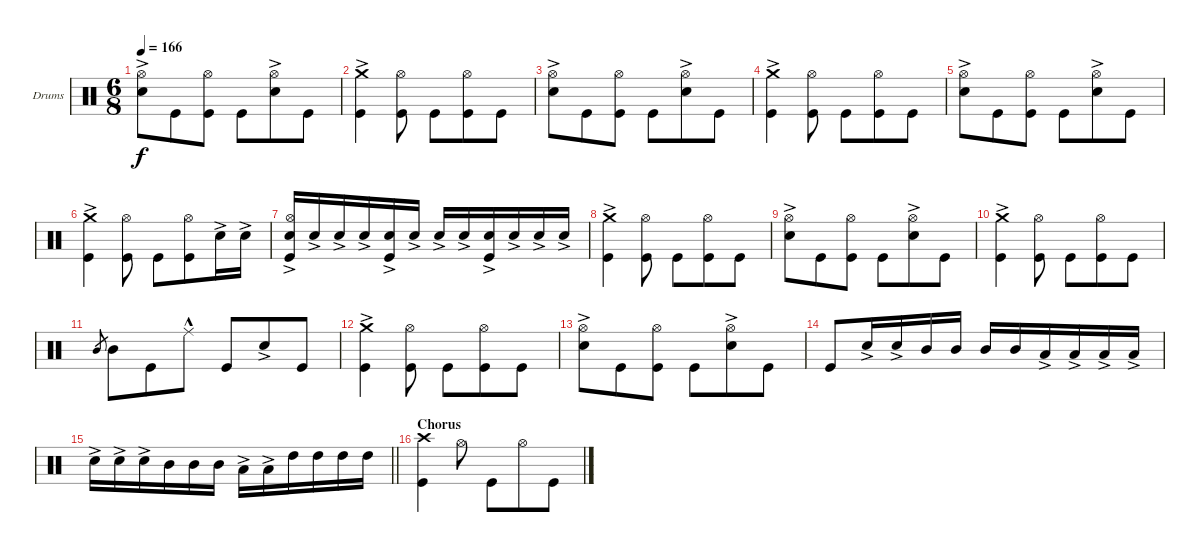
\bracketExtendMode groupsimilarinstruments
\firstSystemTrackNameOrientation horizontal
\otherSystemsTrackNameOrientation horizontal
\track ("Drumkit" "Drums") {instrument percussion}
\staff {score}
\articulation defaults
\ts (6 8)
\tempo 166
\clef neutral
\ks c
("Snare (hit) 2"{ac} "Hi-Hat (open)").8{dy f} "Kick (hit)".8 ("Kick (hit)" "Hi-Hat (open)").8 "Kick (hit)".8 ("Snare (hit) 2"{ac} "Hi-Hat (open)").8 "Kick (hit)".8 |
("Crash medium (hit)"{ac} "Kick (hit)").4 ("Kick (hit)" "Hi-Hat (open)").8 "Kick (hit)".8 ("Kick (hit)" "Hi-Hat (open)").8 "Kick (hit)".8 |
("Snare (hit) 2"{ac} "Hi-Hat (open)").8 "Kick (hit)".8 ("Kick (hit)" "Hi-Hat (open)").8 "Kick (hit)".8 ("Snare (hit) 2"{ac} "Hi-Hat (open)").8 "Kick (hit)".8 |
("Crash medium (hit)"{ac} "Kick (hit)").4 ("Kick (hit)" "Hi-Hat (open)").8 "Kick (hit)".8 ("Kick (hit)" "Hi-Hat (open)").8 "Kick (hit)".8 |
("Snare (hit) 2"{ac} "Hi-Hat (open)").8 "Kick (hit)".8 ("Kick (hit)" "Hi-Hat (open)").8 "Kick (hit)".8 ("Snare (hit) 2"{ac} "Hi-Hat (open)").8 "Kick (hit)".8 |
("Crash medium (hit)"{ac} "Kick (hit)").4 ("Kick (hit)" "Hi-Hat (open)").8 "Kick (hit)".8 ("Kick (hit)" "Hi-Hat (open)").8 "Snare (hit) 2"{ac}.16 "Snare (hit) 2"{ac}.16 |
("Snare (hit) 2"{ac} "Kick (hit)" "Hi-Hat (open)").16 "Snare (hit) 2"{ac}.16 "Snare (hit) 2"{ac}.16 "Snare (hit) 2"{ac}.16 ("Snare (hit) 2"{ac} "Kick (hit)").16 "Snare (hit) 2"{ac}.16 "Snare (hit) 2"{ac}.16 "Snare (hit) 2"{ac}.16 ("Snare (hit) 2"{ac} "Kick (hit)").16 "Snare (hit) 2"{ac}.16 "Snare (hit) 2"{ac}.16 "Snare (hit) 2"{ac}.16 |
("Crash medium (hit)"{ac} "Kick (hit)").4 ("Kick (hit)" "Hi-Hat (open)").8 "Kick (hit)".8 ("Kick (hit)" "Hi-Hat (open)").8 "Kick (hit)".8 |
("Snare (hit) 2"{ac} "Hi-Hat (open)").8 "Kick (hit)".8 ("Kick (hit)" "Hi-Hat (open)").8 "Kick (hit)".8 ("Snare (hit) 2"{ac} "Hi-Hat (open)").8 "Kick (hit)".8 |
("Crash medium (hit)"{ac} "Kick (hit)").4 ("Kick (hit)" "Hi-Hat (open)").8 "Kick (hit)".8 ("Kick (hit)" "Hi-Hat (open)").8 "Kick (hit)".8 |
"Mid Tom (hit)".8{gr} "Mid Tom (hit)".8 "Kick (hit)".8 "Ride (middle)"{hac}.8 "Kick (hit)".8 "Snare (hit) 2"{ac}.8 "Kick (hit)".8 |
("Crash medium (hit)"{ac} "Kick (hit)").4 ("Kick (hit)" "Hi-Hat (open)").8 "Kick (hit)".8 ("Kick (hit)" "Hi-Hat (open)").8 "Kick (hit)".8 |
("Snare (hit) 2"{ac} "Hi-Hat (open)").8 "Kick (hit)".8 ("Kick (hit)" "Hi-Hat (open)").8 "Kick (hit)".8 ("Snare (hit) 2"{ac} "Hi-Hat (open)").8 "Kick (hit)".8 |
"Kick (hit)".8 "Snare (hit) 2"{ac}.16 "Snare (hit) 2"{ac}.16 "Mid Tom (hit)".16 "Mid Tom (hit)".16 "Mid Tom (hit)".16 "Mid Tom (hit)".16 "Low Tom (hit)"{ac}.16 "Low Tom (hit)"{ac}.16 "Low Tom (hit)"{ac}.16 "Low Tom (hit)"{ac}.16 |
\barLineRight lightlight "Snare (hit) 2"{ac}.16 "Snare (hit) 2"{ac}.16 "Snare (hit) 2"{ac}.16 "Mid Tom (hit)".16 "Mid Tom (hit)".16 "Mid Tom (hit)".16 "Low Tom (hit)"{ac}.16 "Low Tom (hit)"{ac}.16 "High Tom (hit)".16 "High Tom (hit)".16 "High Tom (hit)".16 "High Tom (hit)".16
|
\section ("" "Chorus")
("Crash high (hit)" "Kick (hit)").4 "Hi-Hat (open)".8 "Kick (hit)".8 "Hi-Hat (open)".8 "Kick (hit)".8
